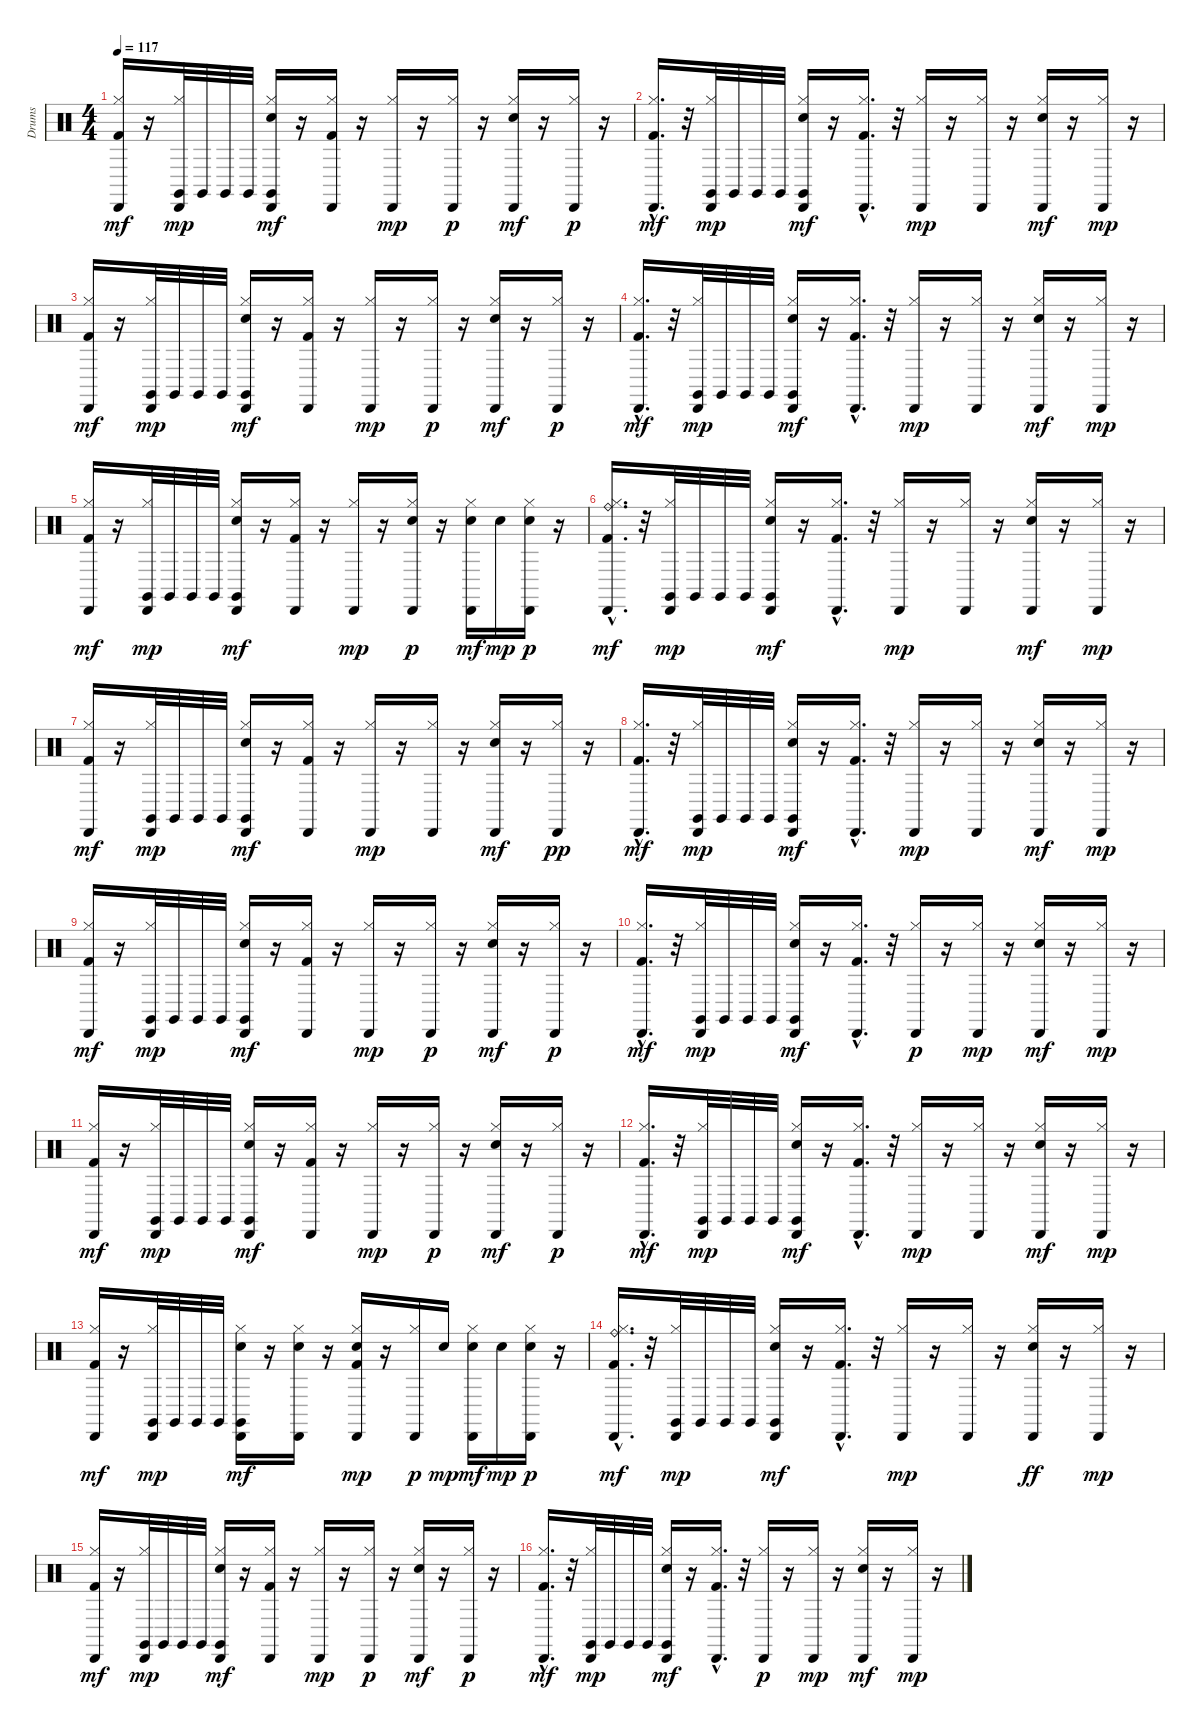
\track ("Drums" "Drums") {instrument percussion}
\staff {score}
\articulation defaults
\ts (4 4)
\tempo 117
\clef neutral
\ks c
("Kick (hit) 2" "Hi-Hat (closed)" "Cabasa (hit)").16{dy mf} r.16 ("Hi-Hat (closed)" "Cabasa (hit)" "Claves (hit)").32{dy mp} "Claves (hit)".32 "Claves (hit)".32 "Claves (hit)".32 ("Electric Snare (hit)" "Hi-Hat (closed)" "Cabasa (hit)" "Claves (hit)").16{dy mf} r.16 ("Kick (hit) 2" "Hi-Hat (closed)" "Cabasa (hit)").16 r.16 ("Hi-Hat (closed)" "Cabasa (hit)").16{dy mp} r.16 ("Hi-Hat (closed)" "Cabasa (hit)").16{dy p} r.16 ("Electric Snare (hit)" "Hi-Hat (closed)" "Cabasa (hit)").16{dy mf} r.16 ("Hi-Hat (closed)" "Cabasa (hit)").16{dy p} r.16 |
("Kick (hit) 2"{hac} "Hi-Hat (closed)" "Cabasa (hit)").16{d dy mf} r.32 ("Hi-Hat (closed)" "Cabasa (hit)" "Claves (hit)").32{dy mp} "Claves (hit)".32 "Claves (hit)".32 "Claves (hit)".32 ("Electric Snare (hit)" "Hi-Hat (closed)" "Cabasa (hit)" "Claves (hit)").16{dy mf} r.16 ("Kick (hit) 2"{hac} "Hi-Hat (closed)" "Cabasa (hit)").16{d} r.32 ("Hi-Hat (closed)" "Cabasa (hit)").16{dy mp} r.16 ("Hi-Hat (closed)" "Cabasa (hit)").16 r.16 ("Electric Snare (hit)" "Hi-Hat (closed)" "Cabasa (hit)").16{dy mf} r.16 ("Hi-Hat (closed)" "Cabasa (hit)").16{dy mp} r.16 |
("Kick (hit) 2" "Hi-Hat (closed)" "Cabasa (hit)").16{dy mf} r.16 ("Hi-Hat (closed)" "Cabasa (hit)" "Claves (hit)").32{dy mp} "Claves (hit)".32 "Claves (hit)".32 "Claves (hit)".32 ("Electric Snare (hit)" "Hi-Hat (closed)" "Cabasa (hit)" "Claves (hit)").16{dy mf} r.16 ("Kick (hit) 2" "Hi-Hat (closed)" "Cabasa (hit)").16 r.16 ("Hi-Hat (closed)" "Cabasa (hit)").16{dy mp} r.16 ("Hi-Hat (closed)" "Cabasa (hit)").16{dy p} r.16 ("Electric Snare (hit)" "Hi-Hat (closed)" "Cabasa (hit)").16{dy mf} r.16 ("Hi-Hat (closed)" "Cabasa (hit)").16{dy p} r.16 |
("Kick (hit) 2"{hac} "Hi-Hat (closed)" "Cabasa (hit)").16{d dy mf} r.32 ("Hi-Hat (closed)" "Cabasa (hit)" "Claves (hit)").32{dy mp} "Claves (hit)".32 "Claves (hit)".32 "Claves (hit)".32 ("Electric Snare (hit)" "Hi-Hat (closed)" "Cabasa (hit)" "Claves (hit)").16{dy mf} r.16 ("Kick (hit) 2"{hac} "Hi-Hat (closed)" "Cabasa (hit)").16{d} r.32 ("Hi-Hat (closed)" "Cabasa (hit)").16{dy mp} r.16 ("Hi-Hat (closed)" "Cabasa (hit)").16 r.16 ("Electric Snare (hit)" "Hi-Hat (closed)" "Cabasa (hit)").16{dy mf} r.16 ("Hi-Hat (closed)" "Cabasa (hit)").16{dy mp} r.16 |
("Kick (hit) 2" "Hi-Hat (closed)" "Cabasa (hit)").16{dy mf} r.16 ("Hi-Hat (closed)" "Cabasa (hit)" "Claves (hit)").32{dy mp} "Claves (hit)".32 "Claves (hit)".32 "Claves (hit)".32 ("Electric Snare (hit)" "Hi-Hat (closed)" "Cabasa (hit)" "Claves (hit)").16{dy mf} r.16 ("Kick (hit) 2" "Hi-Hat (closed)" "Cabasa (hit)").16 r.16 ("Hi-Hat (closed)" "Cabasa (hit)").16{dy mp} r.16 ("Electric Snare (hit)" "Hi-Hat (closed)" "Cabasa (hit)").16{dy p} r.16 ("Electric Snare (hit)" "Hi-Hat (closed)" "Cabasa (hit)").16{dy mf} "Electric Snare (hit)".16{dy mp} ("Electric Snare (hit)" "Hi-Hat (closed)" "Cabasa (hit)").16{dy p} r.16 |
("Kick (hit) 2"{hac} "Hi-Hat (closed)" "Ride (bell)" "Cabasa (hit)").16{d dy mf} r.32 ("Hi-Hat (closed)" "Cabasa (hit)" "Claves (hit)").32{dy mp} "Claves (hit)".32 "Claves (hit)".32 "Claves (hit)".32 ("Electric Snare (hit)" "Hi-Hat (closed)" "Cabasa (hit)" "Claves (hit)").16{dy mf} r.16 ("Kick (hit) 2"{hac} "Hi-Hat (closed)" "Cabasa (hit)").16{d} r.32 ("Hi-Hat (closed)" "Cabasa (hit)").16{dy mp} r.16 ("Hi-Hat (closed)" "Cabasa (hit)").16 r.16 ("Electric Snare (hit)" "Hi-Hat (closed)" "Cabasa (hit)").16{dy mf} r.16 ("Hi-Hat (closed)" "Cabasa (hit)").16{dy mp} r.16 |
("Kick (hit) 2" "Hi-Hat (closed)" "Cabasa (hit)").16{dy mf} r.16 ("Hi-Hat (closed)" "Cabasa (hit)" "Claves (hit)").32{dy mp} "Claves (hit)".32 "Claves (hit)".32 "Claves (hit)".32 ("Electric Snare (hit)" "Hi-Hat (closed)" "Cabasa (hit)" "Claves (hit)").16{dy mf} r.16 ("Kick (hit) 2" "Hi-Hat (closed)" "Cabasa (hit)").16 r.16 ("Hi-Hat (closed)" "Cabasa (hit)").16{dy mp} r.16 ("Hi-Hat (closed)" "Cabasa (hit)").16 r.16 ("Electric Snare (hit)" "Hi-Hat (closed)" "Cabasa (hit)").16{dy mf} r.16 ("Hi-Hat (closed)" "Cabasa (hit)").16{dy pp} r.16 |
("Kick (hit) 2"{hac} "Hi-Hat (closed)" "Cabasa (hit)").16{d dy mf} r.32 ("Hi-Hat (closed)" "Cabasa (hit)" "Claves (hit)").32{dy mp} "Claves (hit)".32 "Claves (hit)".32 "Claves (hit)".32 ("Electric Snare (hit)" "Hi-Hat (closed)" "Cabasa (hit)" "Claves (hit)").16{dy mf} r.16 ("Kick (hit) 2"{hac} "Hi-Hat (closed)" "Cabasa (hit)").16{d} r.32 ("Hi-Hat (closed)" "Cabasa (hit)").16{dy mp} r.16 ("Hi-Hat (closed)" "Cabasa (hit)").16 r.16 ("Electric Snare (hit)" "Hi-Hat (closed)" "Cabasa (hit)").16{dy mf} r.16 ("Hi-Hat (closed)" "Cabasa (hit)").16{dy mp} r.16 |
("Kick (hit) 2" "Hi-Hat (closed)" "Cabasa (hit)").16{dy mf} r.16 ("Hi-Hat (closed)" "Cabasa (hit)" "Claves (hit)").32{dy mp} "Claves (hit)".32 "Claves (hit)".32 "Claves (hit)".32 ("Electric Snare (hit)" "Hi-Hat (closed)" "Cabasa (hit)" "Claves (hit)").16{dy mf} r.16 ("Kick (hit) 2" "Hi-Hat (closed)" "Cabasa (hit)").16 r.16 ("Hi-Hat (closed)" "Cabasa (hit)").16{dy mp} r.16 ("Hi-Hat (closed)" "Cabasa (hit)").16{dy p} r.16 ("Electric Snare (hit)" "Hi-Hat (closed)" "Cabasa (hit)").16{dy mf} r.16 ("Hi-Hat (closed)" "Cabasa (hit)").16{dy p} r.16 |
("Kick (hit) 2"{hac} "Hi-Hat (closed)" "Cabasa (hit)").16{d dy mf} r.32 ("Hi-Hat (closed)" "Cabasa (hit)" "Claves (hit)").32{dy mp} "Claves (hit)".32 "Claves (hit)".32 "Claves (hit)".32 ("Electric Snare (hit)" "Hi-Hat (closed)" "Cabasa (hit)" "Claves (hit)").16{dy mf} r.16 ("Kick (hit) 2"{hac} "Hi-Hat (closed)" "Cabasa (hit)").16{d} r.32 ("Hi-Hat (closed)" "Cabasa (hit)").16{dy p} r.16 ("Hi-Hat (closed)" "Cabasa (hit)").16{dy mp} r.16 ("Electric Snare (hit)" "Hi-Hat (closed)" "Cabasa (hit)").16{dy mf} r.16 ("Hi-Hat (closed)" "Cabasa (hit)").16{dy mp} r.16 |
("Kick (hit) 2" "Hi-Hat (closed)" "Cabasa (hit)").16{dy mf} r.16 ("Hi-Hat (closed)" "Cabasa (hit)" "Claves (hit)").32{dy mp} "Claves (hit)".32 "Claves (hit)".32 "Claves (hit)".32 ("Electric Snare (hit)" "Hi-Hat (closed)" "Cabasa (hit)" "Claves (hit)").16{dy mf} r.16 ("Kick (hit) 2" "Hi-Hat (closed)" "Cabasa (hit)").16 r.16 ("Hi-Hat (closed)" "Cabasa (hit)").16{dy mp} r.16 ("Hi-Hat (closed)" "Cabasa (hit)").16{dy p} r.16 ("Electric Snare (hit)" "Hi-Hat (closed)" "Cabasa (hit)").16{dy mf} r.16 ("Hi-Hat (closed)" "Cabasa (hit)").16{dy p} r.16 |
("Kick (hit) 2"{hac} "Hi-Hat (closed)" "Cabasa (hit)").16{d dy mf} r.32 ("Hi-Hat (closed)" "Cabasa (hit)" "Claves (hit)").32{dy mp} "Claves (hit)".32 "Claves (hit)".32 "Claves (hit)".32 ("Electric Snare (hit)" "Hi-Hat (closed)" "Cabasa (hit)" "Claves (hit)").16{dy mf} r.16 ("Kick (hit) 2"{hac} "Hi-Hat (closed)" "Cabasa (hit)").16{d} r.32 ("Hi-Hat (closed)" "Cabasa (hit)").16{dy mp} r.16 ("Hi-Hat (closed)" "Cabasa (hit)").16 r.16 ("Electric Snare (hit)" "Hi-Hat (closed)" "Cabasa (hit)").16{dy mf} r.16 ("Hi-Hat (closed)" "Cabasa (hit)").16{dy mp} r.16 |
("Kick (hit) 2" "Hi-Hat (closed)" "Cabasa (hit)").16{dy mf} r.16 ("Hi-Hat (closed)" "Cabasa (hit)" "Claves (hit)").32{dy mp} "Claves (hit)".32 "Claves (hit)".32 "Claves (hit)".32 ("Electric Snare (hit)" "Hi-Hat (closed)" "Cabasa (hit)" "Claves (hit)").16{dy mf} r.16 ("Electric Snare (hit)" "Hi-Hat (closed)" "Cabasa (hit)").16 r.16 ("Kick (hit) 2" "Electric Snare (hit)" "Hi-Hat (closed)" "Cabasa (hit)").16{dy mp} r.16 ("Hi-Hat (closed)" "Cabasa (hit)").16{dy p} "Electric Snare (hit)".16{dy mp} ("Electric Snare (hit)" "Hi-Hat (closed)" "Cabasa (hit)").16{dy mf} "Electric Snare (hit)".16{dy mp} ("Electric Snare (hit)" "Hi-Hat (closed)" "Cabasa (hit)").16{dy p} r.16 |
("Kick (hit) 2"{hac} "Hi-Hat (closed)" "Ride (bell)" "Cabasa (hit)").16{d dy mf} r.32 ("Hi-Hat (closed)" "Cabasa (hit)" "Claves (hit)").32{dy mp} "Claves (hit)".32 "Claves (hit)".32 "Claves (hit)".32 ("Electric Snare (hit)" "Hi-Hat (closed)" "Cabasa (hit)" "Claves (hit)").16{dy mf} r.16 ("Kick (hit) 2"{hac} "Hi-Hat (closed)" "Cabasa (hit)").16{d} r.32 ("Hi-Hat (closed)" "Cabasa (hit)").16{dy mp} r.16 ("Hi-Hat (closed)" "Cabasa (hit)").16 r.16 ("Electric Snare (hit)" "Hi-Hat (closed)" "Cabasa (hit)").16{dy ff} r.16 ("Hi-Hat (closed)" "Cabasa (hit)").16{dy mp} r.16 |
("Kick (hit) 2" "Hi-Hat (closed)" "Cabasa (hit)").16{dy mf} r.16 ("Hi-Hat (closed)" "Cabasa (hit)" "Claves (hit)").32{dy mp} "Claves (hit)".32 "Claves (hit)".32 "Claves (hit)".32 ("Electric Snare (hit)" "Hi-Hat (closed)" "Cabasa (hit)" "Claves (hit)").16{dy mf} r.16 ("Kick (hit) 2" "Hi-Hat (closed)" "Cabasa (hit)").16 r.16 ("Hi-Hat (closed)" "Cabasa (hit)").16{dy mp} r.16 ("Hi-Hat (closed)" "Cabasa (hit)").16{dy p} r.16 ("Electric Snare (hit)" "Hi-Hat (closed)" "Cabasa (hit)").16{dy mf} r.16 ("Hi-Hat (closed)" "Cabasa (hit)").16{dy p} r.16 |
("Kick (hit) 2"{hac} "Hi-Hat (closed)" "Cabasa (hit)").16{d dy mf} r.32 ("Hi-Hat (closed)" "Cabasa (hit)" "Claves (hit)").32{dy mp} "Claves (hit)".32 "Claves (hit)".32 "Claves (hit)".32 ("Electric Snare (hit)" "Hi-Hat (closed)" "Cabasa (hit)" "Claves (hit)").16{dy mf} r.16 ("Kick (hit) 2"{hac} "Hi-Hat (closed)" "Cabasa (hit)").16{d} r.32 ("Hi-Hat (closed)" "Cabasa (hit)").16{dy p} r.16 ("Hi-Hat (closed)" "Cabasa (hit)").16{dy mp} r.16 ("Electric Snare (hit)" "Hi-Hat (closed)" "Cabasa (hit)").16{dy mf} r.16 ("Hi-Hat (closed)" "Cabasa (hit)").16{dy mp} r.16
